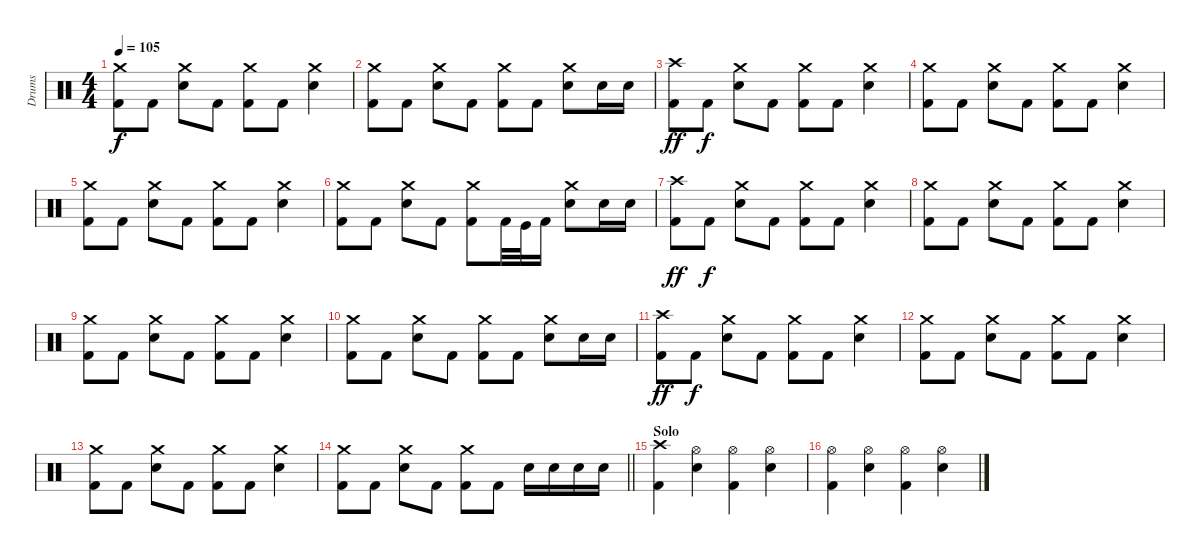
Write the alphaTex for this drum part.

\track ("Drums" "Drums") {instrument percussion}
\staff {score}
\articulation defaults
\ts (4 4)
\tempo 105
\clef neutral
\ks c
("Crash medium (hit)" "Kick (hit) 2").8{dy f} "Kick (hit) 2".8 ("Crash medium (hit)" "Snare (hit) 2").8 "Kick (hit) 2".8 ("Crash medium (hit)" "Kick (hit) 2").8 "Kick (hit) 2".8 ("Crash medium (hit)" "Snare (hit) 2").4 |
("Crash medium (hit)" "Kick (hit) 2").8 "Kick (hit) 2".8 ("Crash medium (hit)" "Snare (hit) 2").8 "Kick (hit) 2".8 ("Crash medium (hit)" "Kick (hit) 2").8 "Kick (hit) 2".8 ("Crash medium (hit)" "Snare (hit) 2").8 "Snare (hit) 2".16 "Snare (hit) 2".16 |
("Crash high (hit)" "Kick (hit) 2").8{dy ff} "Kick (hit) 2".8{dy f} ("Crash medium (hit)" "Snare (hit) 2").8 "Kick (hit) 2".8 ("Crash medium (hit)" "Kick (hit) 2").8 "Kick (hit) 2".8 ("Crash medium (hit)" "Snare (hit) 2").4 |
("Crash medium (hit)" "Kick (hit) 2").8 "Kick (hit) 2".8 ("Crash medium (hit)" "Snare (hit) 2").8 "Kick (hit) 2".8 ("Crash medium (hit)" "Kick (hit) 2").8 "Kick (hit) 2".8 ("Crash medium (hit)" "Snare (hit) 2").4 |
("Crash medium (hit)" "Kick (hit) 2").8 "Kick (hit) 2".8 ("Crash medium (hit)" "Snare (hit) 2").8 "Kick (hit) 2".8 ("Crash medium (hit)" "Kick (hit) 2").8 "Kick (hit) 2".8 ("Crash medium (hit)" "Snare (hit) 2").4 |
("Crash medium (hit)" "Kick (hit) 2").8 "Kick (hit) 2".8 ("Crash medium (hit)" "Snare (hit) 2").8 "Kick (hit) 2".8 ("Crash medium (hit)" "Kick (hit) 2").8 "Kick (hit) 2".32 "Kick (hit)".32 "Kick (hit) 2".16 ("Crash medium (hit)" "Snare (hit) 2").8 "Snare (hit) 2".16 "Snare (hit) 2".16 |
("Crash high (hit)" "Kick (hit) 2").8{dy ff} "Kick (hit) 2".8{dy f} ("Crash medium (hit)" "Snare (hit) 2").8 "Kick (hit) 2".8 ("Crash medium (hit)" "Kick (hit) 2").8 "Kick (hit) 2".8 ("Crash medium (hit)" "Snare (hit) 2").4 |
("Crash medium (hit)" "Kick (hit) 2").8 "Kick (hit) 2".8 ("Crash medium (hit)" "Snare (hit) 2").8 "Kick (hit) 2".8 ("Crash medium (hit)" "Kick (hit) 2").8 "Kick (hit) 2".8 ("Crash medium (hit)" "Snare (hit) 2").4 |
("Crash medium (hit)" "Kick (hit) 2").8 "Kick (hit) 2".8 ("Crash medium (hit)" "Snare (hit) 2").8 "Kick (hit) 2".8 ("Crash medium (hit)" "Kick (hit) 2").8 "Kick (hit) 2".8 ("Crash medium (hit)" "Snare (hit) 2").4 |
("Crash medium (hit)" "Kick (hit) 2").8 "Kick (hit) 2".8 ("Crash medium (hit)" "Snare (hit) 2").8 "Kick (hit) 2".8 ("Crash medium (hit)" "Kick (hit) 2").8 "Kick (hit) 2".8 ("Crash medium (hit)" "Snare (hit) 2").8 "Snare (hit) 2".16 "Snare (hit) 2".16 |
("Crash high (hit)" "Kick (hit) 2").8{dy ff} "Kick (hit) 2".8{dy f} ("Crash medium (hit)" "Snare (hit) 2").8 "Kick (hit) 2".8 ("Crash medium (hit)" "Kick (hit) 2").8 "Kick (hit) 2".8 ("Crash medium (hit)" "Snare (hit) 2").4 |
("Crash medium (hit)" "Kick (hit) 2").8 "Kick (hit) 2".8 ("Crash medium (hit)" "Snare (hit) 2").8 "Kick (hit) 2".8 ("Crash medium (hit)" "Kick (hit) 2").8 "Kick (hit) 2".8 ("Crash medium (hit)" "Snare (hit) 2").4 |
("Crash medium (hit)" "Kick (hit) 2").8 "Kick (hit) 2".8 ("Crash medium (hit)" "Snare (hit) 2").8 "Kick (hit) 2".8 ("Crash medium (hit)" "Kick (hit) 2").8 "Kick (hit) 2".8 ("Crash medium (hit)" "Snare (hit) 2").4 |
\barLineRight lightlight
("Crash medium (hit)" "Kick (hit) 2").8 "Kick (hit) 2".8 ("Crash medium (hit)" "Snare (hit) 2").8 "Kick (hit) 2".8 ("Crash medium (hit)" "Kick (hit) 2").8 "Kick (hit) 2".8 "Snare (hit) 2".16 "Snare (hit) 2".16 "Snare (hit) 2".16 "Snare (hit) 2".16 |
\section ("" "Solo")
("Crash high (hit)" "Kick (hit) 2").4 ("Hi-Hat (open)" "Snare (hit) 2").4 ("Hi-Hat (open)" "Kick (hit) 2").4 ("Hi-Hat (open)" "Snare (hit) 2").4 |
("Hi-Hat (open)" "Kick (hit) 2").4 ("Hi-Hat (open)" "Snare (hit) 2").4 ("Hi-Hat (open)" "Kick (hit) 2").4 ("Hi-Hat (open)" "Snare (hit) 2").4
